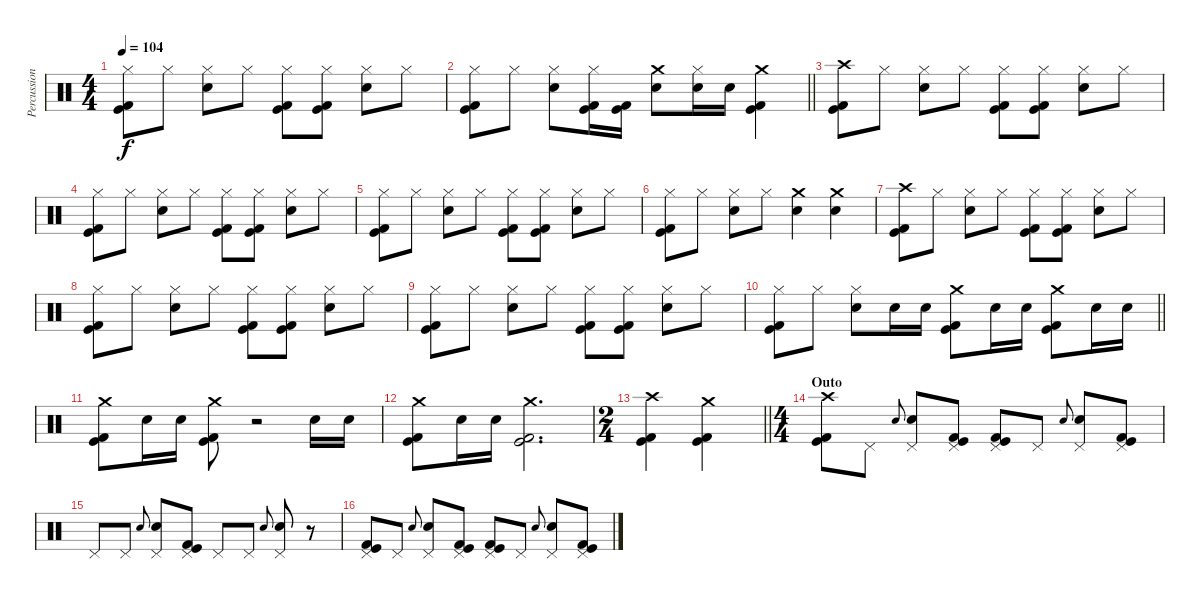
\track ("Percussion" "Percussion") {instrument percussion}
\staff {score}
\articulation defaults
\ts (4 4)
\tempo 104
\clef neutral
\ks c
("Hi-Hat (closed)" "Kick (hit)" "Kick (hit) 2").8{dy f} "Hi-Hat (closed)".8 ("Hi-Hat (closed)" "Electric Snare (hit)").8 "Hi-Hat (closed)".8 ("Hi-Hat (closed)" "Kick (hit)" "Kick (hit) 2").8 ("Hi-Hat (closed)" "Kick (hit)" "Kick (hit) 2").8 ("Hi-Hat (closed)" "Electric Snare (hit)").8 "Hi-Hat (closed)".8 |
\barLineRight lightlight
("Hi-Hat (closed)" "Kick (hit)" "Kick (hit) 2").8 "Hi-Hat (closed)".8 ("Hi-Hat (closed)" "Electric Snare (hit)").8 ("Hi-Hat (closed)" "Kick (hit)" "Kick (hit) 2").16 ("Kick (hit)" "Kick (hit) 2").16 ("Crash medium (hit)" "Electric Snare (hit)").8 ("Hi-Hat (closed)" "Electric Snare (hit)").16 "Electric Snare (hit)".16 ("Crash medium (hit)" "Kick (hit)" "Kick (hit) 2").4 |
\section ("" "")
("Crash high (hit)" "Kick (hit)" "Kick (hit) 2").8 "Hi-Hat (closed)".8 ("Hi-Hat (closed)" "Electric Snare (hit)").8 "Hi-Hat (closed)".8 ("Hi-Hat (closed)" "Kick (hit)" "Kick (hit) 2").8 ("Hi-Hat (closed)" "Kick (hit)" "Kick (hit) 2").8 ("Hi-Hat (closed)" "Electric Snare (hit)").8 "Hi-Hat (closed)".8 |
("Hi-Hat (closed)" "Kick (hit)" "Kick (hit) 2").8 "Hi-Hat (closed)".8 ("Hi-Hat (closed)" "Electric Snare (hit)").8 "Hi-Hat (closed)".8 ("Hi-Hat (closed)" "Kick (hit)" "Kick (hit) 2").8 ("Hi-Hat (closed)" "Kick (hit)" "Kick (hit) 2").8 ("Hi-Hat (closed)" "Electric Snare (hit)").8 "Hi-Hat (closed)".8 |
("Hi-Hat (closed)" "Kick (hit)" "Kick (hit) 2").8 "Hi-Hat (closed)".8 ("Hi-Hat (closed)" "Electric Snare (hit)").8 "Hi-Hat (closed)".8 ("Hi-Hat (closed)" "Kick (hit)" "Kick (hit) 2").8 ("Hi-Hat (closed)" "Kick (hit)" "Kick (hit) 2").8 ("Hi-Hat (closed)" "Electric Snare (hit)").8 "Hi-Hat (closed)".8 |
("Hi-Hat (closed)" "Kick (hit)" "Kick (hit) 2").8 "Hi-Hat (closed)".8 ("Hi-Hat (closed)" "Electric Snare (hit)").8 "Hi-Hat (closed)".8 ("Crash medium (hit)" "Electric Snare (hit)").4 ("Crash medium (hit)" "Electric Snare (hit)").4 |
("Crash high (hit)" "Kick (hit)" "Kick (hit) 2").8 "Hi-Hat (closed)".8 ("Hi-Hat (closed)" "Electric Snare (hit)").8 "Hi-Hat (closed)".8 ("Hi-Hat (closed)" "Kick (hit)" "Kick (hit) 2").8 ("Hi-Hat (closed)" "Kick (hit)" "Kick (hit) 2").8 ("Hi-Hat (closed)" "Electric Snare (hit)").8 "Hi-Hat (closed)".8 |
("Hi-Hat (closed)" "Kick (hit)" "Kick (hit) 2").8 "Hi-Hat (closed)".8 ("Hi-Hat (closed)" "Electric Snare (hit)").8 "Hi-Hat (closed)".8 ("Hi-Hat (closed)" "Kick (hit)" "Kick (hit) 2").8 ("Hi-Hat (closed)" "Kick (hit)" "Kick (hit) 2").8 ("Hi-Hat (closed)" "Electric Snare (hit)").8 "Hi-Hat (closed)".8 |
("Hi-Hat (closed)" "Kick (hit)" "Kick (hit) 2").8 "Hi-Hat (closed)".8 ("Hi-Hat (closed)" "Electric Snare (hit)").8 "Hi-Hat (closed)".8 ("Hi-Hat (closed)" "Kick (hit)" "Kick (hit) 2").8 ("Hi-Hat (closed)" "Kick (hit)" "Kick (hit) 2").8 ("Hi-Hat (closed)" "Electric Snare (hit)").8 "Hi-Hat (closed)".8 |
\barLineRight lightlight
("Hi-Hat (closed)" "Kick (hit)" "Kick (hit) 2").8 "Hi-Hat (closed)".8 ("Hi-Hat (closed)" "Electric Snare (hit)").8 "Electric Snare (hit)".16 "Electric Snare (hit)".16 ("Crash medium (hit)" "Kick (hit)" "Kick (hit) 2").8 "Electric Snare (hit)".16 "Electric Snare (hit)".16 ("Crash medium (hit)" "Kick (hit)" "Kick (hit) 2").8 "Electric Snare (hit)".16 "Electric Snare (hit)".16 |
("Crash medium (hit)" "Kick (hit)" "Kick (hit) 2").8 "Electric Snare (hit)".16 "Electric Snare (hit)".16 ("Crash medium (hit)" "Kick (hit)" "Kick (hit) 2").8 r.2 "Electric Snare (hit)".16 "Electric Snare (hit)".16 |
("Crash medium (hit)" "Kick (hit)" "Kick (hit) 2").8 "Electric Snare (hit)".16 "Electric Snare (hit)".16 ("Crash medium (hit)" "Kick (hit)" "Kick (hit) 2").2{d} |
\ts (2 4)
\barLineRight lightlight
("Crash high (hit)" "Kick (hit)" "Kick (hit) 2").4 ("Crash medium (hit)" "Kick (hit)" "Kick (hit) 2").4 |
\ts (4 4)
\section ("" "Outo")
("Crash high (hit)" "Kick (hit)" "Kick (hit) 2").8 "Pedal Hi-Hat (hit)".8 "Electric Snare (hit)".8{gr onbeat} ("Pedal Hi-Hat (hit)" "Electric Snare (hit)").8 ("Pedal Hi-Hat (hit)" "Kick (hit)" "Kick (hit) 2").8 ("Pedal Hi-Hat (hit)" "Kick (hit)" "Kick (hit) 2").8 "Pedal Hi-Hat (hit)".8 "Electric Snare (hit)".8{gr onbeat} ("Pedal Hi-Hat (hit)" "Electric Snare (hit)").8 ("Pedal Hi-Hat (hit)" "Kick (hit)" "Kick (hit) 2").8 |
"Pedal Hi-Hat (hit)".8 "Pedal Hi-Hat (hit)".8 "Electric Snare (hit)".8{gr onbeat} ("Pedal Hi-Hat (hit)" "Electric Snare (hit)").8 ("Pedal Hi-Hat (hit)" "Kick (hit)" "Kick (hit) 2").8 "Pedal Hi-Hat (hit)".8 "Pedal Hi-Hat (hit)".8 "Electric Snare (hit)".8{gr onbeat} ("Pedal Hi-Hat (hit)" "Electric Snare (hit)").8 r.8 |
("Pedal Hi-Hat (hit)" "Kick (hit)" "Kick (hit) 2").8 "Pedal Hi-Hat (hit)".8 "Electric Snare (hit)".8{gr onbeat} ("Pedal Hi-Hat (hit)" "Electric Snare (hit)").8 ("Pedal Hi-Hat (hit)" "Kick (hit)" "Kick (hit) 2").8 ("Pedal Hi-Hat (hit)" "Kick (hit)" "Kick (hit) 2").8 "Pedal Hi-Hat (hit)".8 "Electric Snare (hit)".8{gr onbeat} ("Pedal Hi-Hat (hit)" "Electric Snare (hit)").8 ("Pedal Hi-Hat (hit)" "Kick (hit)" "Kick (hit) 2").8
